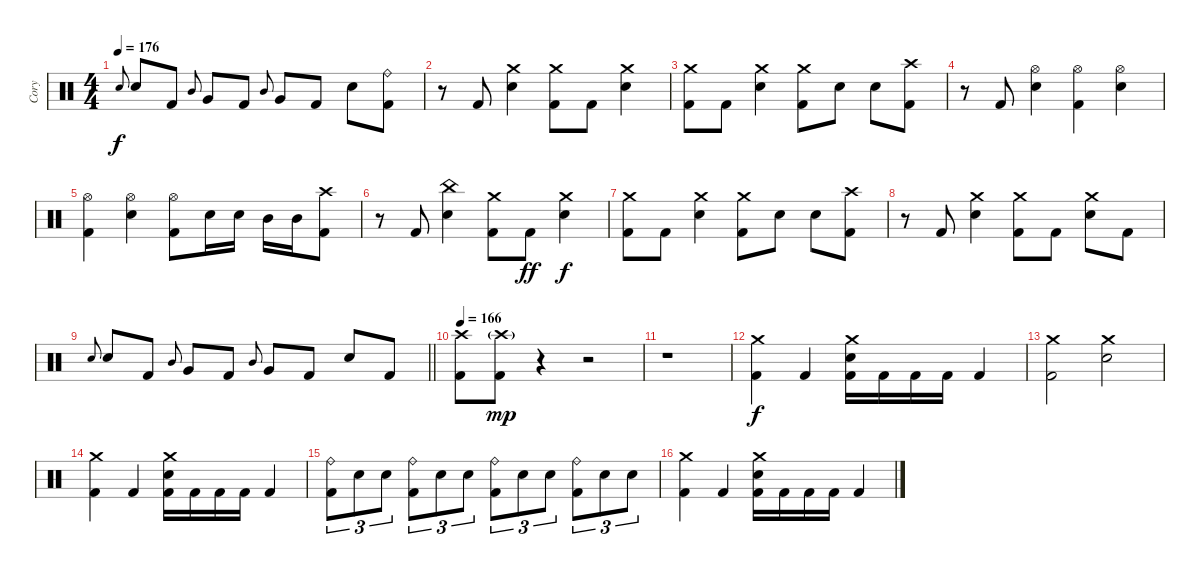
\track ("Cory" "Cory") {instrument percussion}
\staff {score}
\articulation defaults
\ts (4 4)
\tempo 176
\clef neutral
\ks c "Snare (hit) 2".8{gr onbeat dy f} "Snare (hit) 2".8 "Kick (hit) 2".8 "Mid Tom (hit)".8{gr onbeat} "Very Low Tom (hit)".8 "Kick (hit) 2".8 "Mid Tom (hit)".8{gr onbeat} "Very Low Tom (hit)".8 "Kick (hit) 2".8 "Snare (hit) 2".8
("Ride (bell)" "Kick (hit) 2").8 |
r.8 "Kick (hit) 2".8 ("Crash medium (hit)" "Snare (hit) 2").4 ("Crash medium (hit)" "Kick (hit) 2").8 "Kick (hit) 2".8 ("Crash medium (hit)" "Snare (hit) 2").4 |
("Crash medium (hit)" "Kick (hit) 2").8 "Kick (hit) 2".8 ("Crash medium (hit)" "Snare (hit) 2").4 ("Crash medium (hit)" "Kick (hit) 2").8 "Snare (hit) 2".8 "Snare (hit) 2".8 ("Crash high (hit)" "Kick (hit) 2").8 |
r.8 "Kick (hit) 2".8 ("Hi-Hat (open)" "Snare (hit) 2").4 ("Hi-Hat (open)" "Kick (hit) 2").4 ("Hi-Hat (open)" "Snare (hit) 2").4 |
("Hi-Hat (open)" "Kick (hit) 2").4 ("Hi-Hat (open)" "Snare (hit) 2").4 ("Hi-Hat (open)" "Kick (hit) 2").8 "Snare (hit) 2".16 "Snare (hit) 2".16 "Mid Tom (hit)".16 "Mid Tom (hit)".16 ("Crash high (hit)" "Kick (hit) 2").8 |
r.8 "Kick (hit) 2".8 ("China (hit)" "Snare (hit) 2").4 ("Crash medium (hit)" "Kick (hit) 2").8 "Kick (hit) 2".8{dy ff} ("Crash medium (hit)" "Snare (hit) 2").4{dy f} |
("Crash medium (hit)" "Kick (hit) 2").8 "Kick (hit) 2".8 ("Crash medium (hit)" "Snare (hit) 2").4 ("Crash medium (hit)" "Kick (hit) 2").8 "Snare (hit) 2".8 "Snare (hit) 2".8 ("Crash high (hit)" "Kick (hit) 2").8 |
r.8 "Kick (hit) 2".8 ("Crash medium (hit)" "Snare (hit) 2").4 ("Crash medium (hit)" "Kick (hit) 2").8 "Kick (hit) 2".8 ("Crash medium (hit)" "Snare (hit) 2").8 "Kick (hit) 2".8 |
\barLineRight lightlight "Snare (hit) 2".8{gr onbeat} "Snare (hit) 2".8 "Kick (hit) 2".8 "Mid Tom (hit)".8{gr onbeat} "Very Low Tom (hit)".8 "Kick (hit) 2".8 "Mid Tom (hit)".8{gr onbeat} "Very Low Tom (hit)".8 "Kick (hit) 2".8 "Snare (hit) 2".8 "Kick (hit) 2".8
|
\tempo 166
("Crash high (hit)" "Kick (hit) 2").8 ("Crash high (hit)"{g} "Kick (hit) 2").8{dy mp} r.4 r.2 |
r.1 |
("Crash medium (hit)" "Kick (hit) 2").4{dy f} "Kick (hit) 2".4 ("Crash medium (hit)" "Snare (hit) 2" "Kick (hit) 2").16 "Kick (hit) 2".16 "Kick (hit) 2".16 "Kick (hit) 2".16 "Kick (hit) 2".4 |
("Crash medium (hit)" "Kick (hit) 2").2 ("Crash medium (hit)" "Snare (hit) 2").2 |
("Crash medium (hit)" "Kick (hit) 2").4 "Kick (hit) 2".4 ("Crash medium (hit)" "Snare (hit) 2" "Kick (hit) 2").16 "Kick (hit) 2".16 "Kick (hit) 2".16 "Kick (hit) 2".16 "Kick (hit) 2".4 |
("Ride (bell)" "Kick (hit) 2").8{tu (3 2)} "Snare (hit) 2".8{tu (3 2)} "Snare (hit) 2".8{tu (3 2)} ("Ride (bell)" "Kick (hit) 2").8{tu (3 2)} "Snare (hit) 2".8{tu (3 2)} "Snare (hit) 2".8{tu (3 2)} ("Ride (bell)" "Kick (hit) 2").8{tu (3 2)} "Snare (hit) 2".8{tu (3 2)} "Snare (hit) 2".8{tu (3 2)} ("Ride (bell)" "Kick (hit) 2").8{tu (3 2)} "Snare (hit) 2".8{tu (3 2)} "Snare (hit) 2".8{tu (3 2)} |
("Crash medium (hit)" "Kick (hit) 2").4 "Kick (hit) 2".4 ("Crash medium (hit)" "Snare (hit) 2" "Kick (hit) 2").16 "Kick (hit) 2".16 "Kick (hit) 2".16 "Kick (hit) 2".16 "Kick (hit) 2".4
